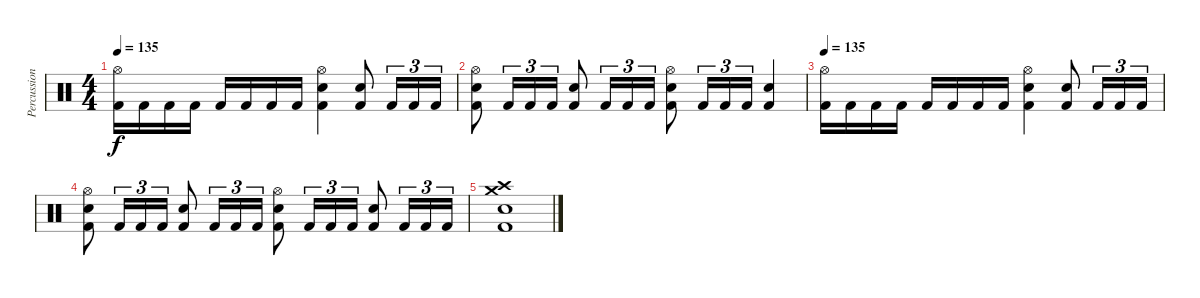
\track ("Percussion" "Percussion") {instrument percussion}
\staff {score}
\articulation defaults
\ts (4 4)
\tempo 135
\clef neutral
\ks c
("Hi-Hat (open)" "Kick (hit) 2").16{dy f} "Kick (hit) 2".16 "Kick (hit) 2".16 "Kick (hit) 2".16 "Kick (hit) 2".16 "Kick (hit) 2".16 "Kick (hit) 2".16 "Kick (hit) 2".16 ("Hi-Hat (open)" "Electric Snare (hit)" "Kick (hit) 2").4 ("Electric Snare (hit)" "Kick (hit) 2").8 "Kick (hit) 2".16{tu (3 2)} "Kick (hit) 2".16{tu (3 2)} "Kick (hit) 2".16{tu (3 2)} |
("Hi-Hat (open)" "Electric Snare (hit)" "Kick (hit) 2").8 "Kick (hit) 2".16{tu (3 2)} "Kick (hit) 2".16{tu (3 2)} "Kick (hit) 2".16{tu (3 2)} ("Electric Snare (hit)" "Kick (hit) 2").8 "Kick (hit) 2".16{tu (3 2)} "Kick (hit) 2".16{tu (3 2)} "Kick (hit) 2".16{tu (3 2)} ("Hi-Hat (open)" "Electric Snare (hit)" "Kick (hit) 2").8 "Kick (hit) 2".16{tu (3 2)} "Kick (hit) 2".16{tu (3 2)} "Kick (hit) 2".16{tu (3 2)} ("Electric Snare (hit)" "Kick (hit) 2").4 |
\tempo 135
("Hi-Hat (open)" "Kick (hit) 2").16 "Kick (hit) 2".16 "Kick (hit) 2".16 "Kick (hit) 2".16 "Kick (hit) 2".16 "Kick (hit) 2".16 "Kick (hit) 2".16 "Kick (hit) 2".16 ("Hi-Hat (open)" "Electric Snare (hit)" "Kick (hit) 2").4 ("Electric Snare (hit)" "Kick (hit) 2").8 "Kick (hit) 2".16{tu (3 2)} "Kick (hit) 2".16{tu (3 2)} "Kick (hit) 2".16{tu (3 2)} |
("Hi-Hat (open)" "Electric Snare (hit)" "Kick (hit) 2").8 "Kick (hit) 2".16{tu (3 2)} "Kick (hit) 2".16{tu (3 2)} "Kick (hit) 2".16{tu (3 2)} ("Electric Snare (hit)" "Kick (hit) 2").8 "Kick (hit) 2".16{tu (3 2)} "Kick (hit) 2".16{tu (3 2)} "Kick (hit) 2".16{tu (3 2)} ("Hi-Hat (open)" "Electric Snare (hit)" "Kick (hit) 2").8 "Kick (hit) 2".16{tu (3 2)} "Kick (hit) 2".16{tu (3 2)} "Kick (hit) 2".16{tu (3 2)} ("Electric Snare (hit)" "Kick (hit) 2").8 "Kick (hit) 2".16{tu (3 2)} "Kick (hit) 2".16{tu (3 2)} "Kick (hit) 2".16{tu (3 2)} |
("Crash medium (hit)" "Crash high (hit)" "Electric Snare (hit)" "Kick (hit) 2").1
